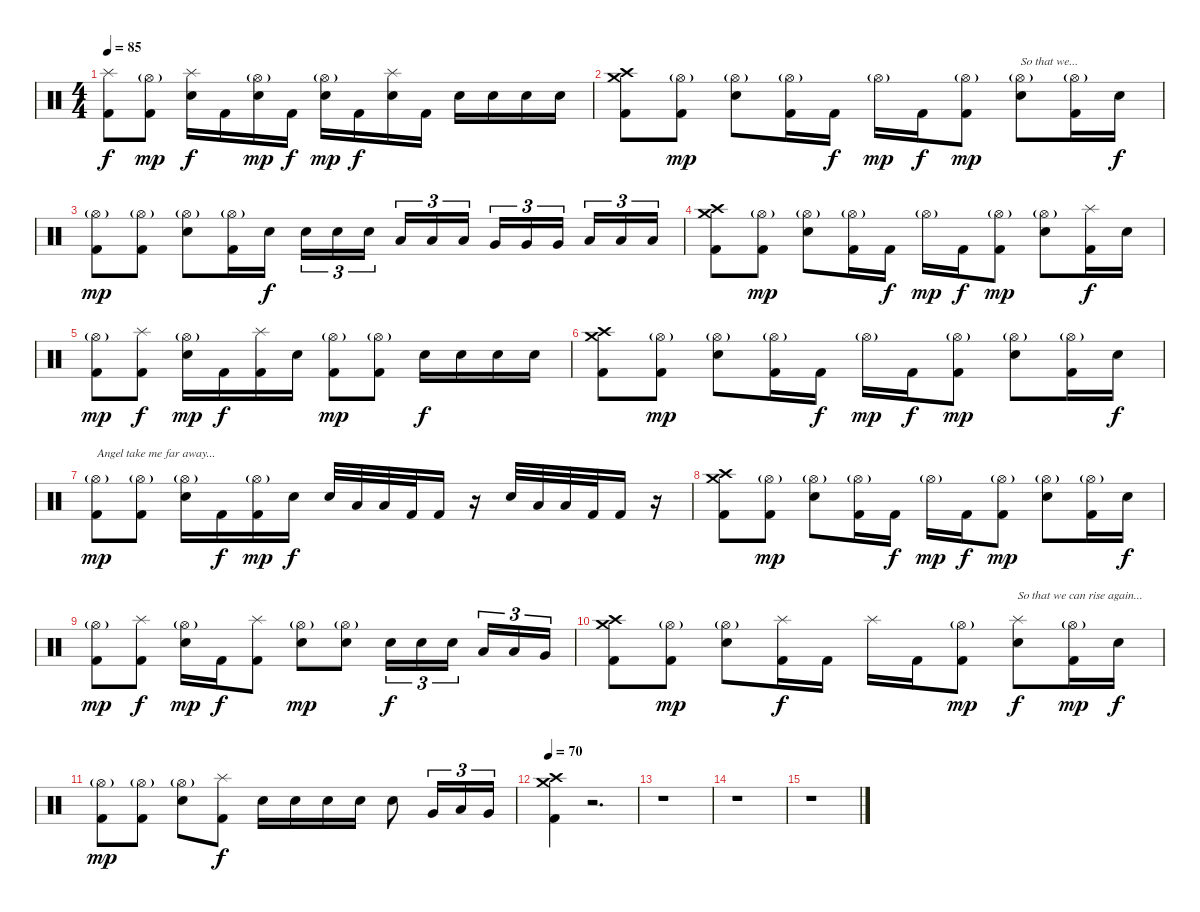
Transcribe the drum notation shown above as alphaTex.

\track "" {instrument percussion}
\staff {score}
\articulation defaults
\ts (4 4)
\tempo 85
\clef neutral
\ks c
("Splash (hit)" "Kick (hit) 2").8{dy f} ("Hi-Hat (open)"{g} "Kick (hit) 2").8{dy mp} ("Splash (hit)" "Electric Snare (hit)").16{dy f} "Kick (hit) 2".16 ("Hi-Hat (open)"{g} "Electric Snare (hit)").16{dy mp} "Kick (hit) 2".16{dy f} ("Hi-Hat (open)"{g} "Electric Snare (hit)").16{dy mp} "Kick (hit) 2".16{dy f} ("Splash (hit)" "Electric Snare (hit)").16 "Kick (hit) 2".16 "Electric Snare (hit)".16 "Electric Snare (hit)".16 "Electric Snare (hit)".16 "Electric Snare (hit)".16 |
("Crash high (hit)" "Crash medium (hit)" "Kick (hit) 2").8 ("Hi-Hat (open)"{g} "Kick (hit) 2").8{dy mp} ("Hi-Hat (open)"{g} "Electric Snare (hit)").8 ("Hi-Hat (open)"{g} "Kick (hit) 2").16 "Kick (hit) 2".16{dy f} "Hi-Hat (open)"{g}.16{dy mp} "Kick (hit) 2".16{dy f} ("Hi-Hat (open)"{g} "Kick (hit) 2").8{dy mp} ("Hi-Hat (open)"{g} "Electric Snare (hit)").8{txt "So that we..."} ("Hi-Hat (open)"{g} "Kick (hit) 2").16 "Electric Snare (hit)".16{dy f} |
("Hi-Hat (open)"{g} "Kick (hit) 2").8{dy mp} ("Hi-Hat (open)"{g} "Kick (hit) 2").8 ("Hi-Hat (open)"{g} "Electric Snare (hit)").8 ("Hi-Hat (open)"{g} "Kick (hit) 2").16 "Electric Snare (hit)".16{dy f} "Electric Snare (hit)".16{tu (3 2)} "Electric Snare (hit)".16{tu (3 2)} "Electric Snare (hit)".16{tu (3 2) beam splitsecondary} "Low Tom (hit)".16{tu (3 2)} "Low Tom (hit)".16{tu (3 2)} "Low Tom (hit)".16{tu (3 2)} "Very Low Tom (hit)".16{tu (3 2)} "Very Low Tom (hit)".16{tu (3 2)} "Very Low Tom (hit)".16{tu (3 2) beam splitsecondary} "Low Floor Tom (hit)".16{tu (3 2)} "Low Floor Tom (hit)".16{tu (3 2)} "Low Floor Tom (hit)".16{tu (3 2)} |
("Crash high (hit)" "Crash medium (hit)" "Kick (hit) 2").8 ("Hi-Hat (open)"{g} "Kick (hit) 2").8{dy mp} ("Hi-Hat (open)"{g} "Electric Snare (hit)").8 ("Hi-Hat (open)"{g} "Kick (hit) 2").16 "Kick (hit) 2".16{dy f} "Hi-Hat (open)"{g}.16{dy mp} "Kick (hit) 2".16{dy f} ("Hi-Hat (open)"{g} "Kick (hit) 2").8{dy mp} ("Hi-Hat (open)"{g} "Electric Snare (hit)").8 ("Splash (hit)" "Kick (hit) 2").16{dy f} "Electric Snare (hit)".16 |
("Hi-Hat (open)"{g} "Kick (hit) 2").8{dy mp} ("Splash (hit)" "Kick (hit) 2").8{dy f} ("Hi-Hat (open)"{g} "Electric Snare (hit)").16{dy mp} "Kick (hit) 2".16{dy f} ("Splash (hit)" "Kick (hit) 2").16 "Electric Snare (hit)".16 ("Hi-Hat (open)"{g} "Kick (hit) 2").8{dy mp} ("Hi-Hat (open)"{g} "Kick (hit) 2").8 "Electric Snare (hit)".16{dy f} "Electric Snare (hit)".16 "Electric Snare (hit)".16 "Electric Snare (hit)".16 |
("Crash high (hit)" "Crash medium (hit)" "Kick (hit) 2").8 ("Hi-Hat (open)"{g} "Kick (hit) 2").8{dy mp} ("Hi-Hat (open)"{g} "Electric Snare (hit)").8 ("Hi-Hat (open)"{g} "Kick (hit) 2").16 "Kick (hit) 2".16{dy f} "Hi-Hat (open)"{g}.16{dy mp} "Kick (hit) 2".16{dy f} ("Hi-Hat (open)"{g} "Kick (hit) 2").8{dy mp} ("Hi-Hat (open)"{g} "Electric Snare (hit)").8 ("Hi-Hat (open)"{g} "Kick (hit) 2").16 "Electric Snare (hit)".16{dy f} |
("Hi-Hat (open)"{g} "Kick (hit) 2").8{txt "Angel take me far away..." dy mp} ("Hi-Hat (open)"{g} "Kick (hit) 2").8 ("Hi-Hat (open)"{g} "Electric Snare (hit)").16 "Kick (hit) 2".16{dy f} ("Hi-Hat (open)"{g} "Kick (hit) 2").16{dy mp} "Electric Snare (hit)".16{dy f} "Electric Snare (hit)".32 "Low Tom (hit)".32 "Low Tom (hit)".32 "Kick (hit) 2".32 "Kick (hit) 2".16 r.16 "Electric Snare (hit)".32 "Low Tom (hit)".32 "Low Tom (hit)".32 "Kick (hit) 2".32 "Kick (hit) 2".16 r.16 |
("Crash high (hit)" "Crash medium (hit)" "Kick (hit) 2").8 ("Hi-Hat (open)"{g} "Kick (hit) 2").8{dy mp} ("Hi-Hat (open)"{g} "Electric Snare (hit)").8 ("Hi-Hat (open)"{g} "Kick (hit) 2").16 "Kick (hit) 2".16{dy f} "Hi-Hat (open)"{g}.16{dy mp} "Kick (hit) 2".16{dy f} ("Hi-Hat (open)"{g} "Kick (hit) 2").8{dy mp} ("Hi-Hat (open)"{g} "Electric Snare (hit)").8 ("Hi-Hat (open)"{g} "Kick (hit) 2").16 "Electric Snare (hit)".16{dy f} |
("Hi-Hat (open)"{g} "Kick (hit) 2").8{dy mp} ("Splash (hit)" "Kick (hit) 2").8{dy f} ("Hi-Hat (open)"{g} "Electric Snare (hit)").16{dy mp} "Kick (hit) 2".16{dy f} ("Splash (hit)" "Kick (hit) 2").8 ("Hi-Hat (open)"{g} "Electric Snare (hit)").8{dy mp} ("Hi-Hat (open)"{g} "Electric Snare (hit)").8 "Electric Snare (hit)".16{tu (3 2) dy f} "Electric Snare (hit)".16{tu (3 2)} "Electric Snare (hit)".16{tu (3 2) beam splitsecondary} "Low Tom (hit)".16{tu (3 2)} "Low Tom (hit)".16{tu (3 2)} "Very Low Tom (hit)".16{tu (3 2)} |
("Crash high (hit)" "Crash medium (hit)" "Kick (hit) 2").8 ("Hi-Hat (open)"{g} "Kick (hit) 2").8{dy mp} ("Hi-Hat (open)"{g} "Electric Snare (hit)").8 ("Splash (hit)" "Kick (hit) 2").16{dy f} "Kick (hit) 2".16 "Splash (hit)".16 "Kick (hit) 2".16 ("Hi-Hat (open)"{g} "Kick (hit) 2").8{dy mp} ("Splash (hit)" "Electric Snare (hit)").8{txt "So that we can rise again..." dy f} ("Hi-Hat (open)"{g} "Kick (hit) 2").16{dy mp} "Electric Snare (hit)".16{dy f} |
("Hi-Hat (open)"{g} "Kick (hit) 2").8{dy mp} ("Hi-Hat (open)"{g} "Kick (hit) 2").8 ("Hi-Hat (open)"{g} "Electric Snare (hit)").8 ("Splash (hit)" "Kick (hit) 2").8{dy f} "Electric Snare (hit)".16 "Electric Snare (hit)".16 "Electric Snare (hit)".16 "Electric Snare (hit)".16 "Electric Snare (hit)".8 "Very Low Tom (hit)".16{tu (3 2)} "Low Tom (hit)".16{tu (3 2)} "Very Low Tom (hit)".16{tu (3 2)} |
\tempo 70
("Crash high (hit)" "Crash medium (hit)" "Kick (hit) 2").4 r.2{d} |
r.1 |
r.1 |
r.1
